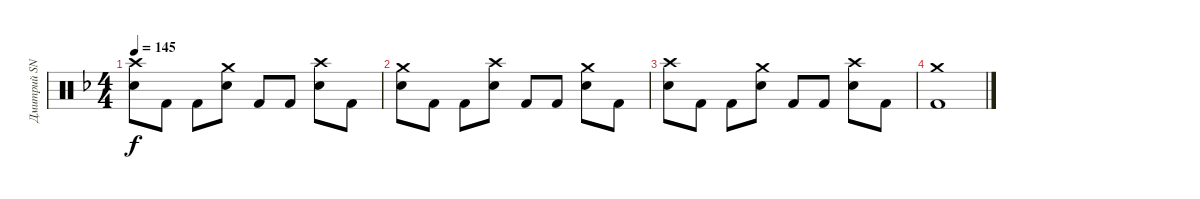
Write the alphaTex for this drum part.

\track ("Дмитрий SNAKE Хакимов" "Дмитрий SN") {instrument percussion}
\staff {score}
\articulation defaults
\ts (4 4)
\tempo 145
\clef neutral
\ks f
("Crash high (hit)" "Snare (hit) 2").8{dy f} "Kick (hit) 2".8 "Kick (hit) 2".8 ("Crash medium (hit)" "Snare (hit) 2").8 "Kick (hit) 2".8 "Kick (hit) 2".8 ("Crash high (hit)" "Snare (hit) 2").8 "Kick (hit) 2".8 |
("Crash medium (hit)" "Snare (hit) 2").8 "Kick (hit) 2".8 "Kick (hit) 2".8 ("Crash high (hit)" "Snare (hit) 2").8 "Kick (hit) 2".8 "Kick (hit) 2".8 ("Crash medium (hit)" "Snare (hit) 2").8 "Kick (hit) 2".8 |
("Crash high (hit)" "Snare (hit) 2").8 "Kick (hit) 2".8 "Kick (hit) 2".8 ("Crash medium (hit)" "Snare (hit) 2").8 "Kick (hit) 2".8 "Kick (hit) 2".8 ("Crash high (hit)" "Snare (hit) 2").8 "Kick (hit) 2".8 |
("Crash medium (hit)" "Kick (hit) 2").1
